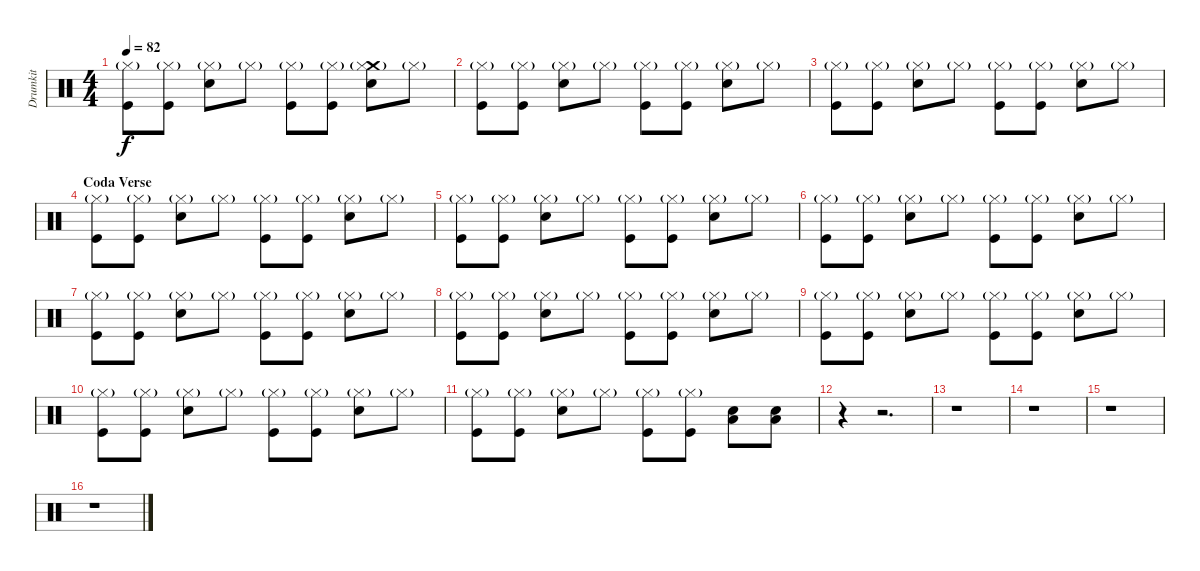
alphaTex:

\track ("Drumkit" "Drumkit") {instrument percussion}
\staff {score}
\articulation defaults
\ts (4 4)
\tempo 82
\clef neutral
\ks c
("Hi-Hat (closed)"{g} "Kick (hit)").8{dy f} ("Hi-Hat (closed)"{g} "Kick (hit)").8 ("Hi-Hat (closed)"{g} "Snare (hit) 2").8 "Hi-Hat (closed)"{g}.8 ("Hi-Hat (closed)"{g} "Kick (hit)").8 ("Hi-Hat (closed)"{g} "Kick (hit)").8 ("Crash medium (hit)" "Hi-Hat (closed)"{g} "Snare (hit) 2").8 "Hi-Hat (closed)"{g}.8 |
("Hi-Hat (closed)"{g} "Kick (hit)").8 ("Hi-Hat (closed)"{g} "Kick (hit)").8 ("Hi-Hat (closed)"{g} "Snare (hit) 2").8 "Hi-Hat (closed)"{g}.8 ("Hi-Hat (closed)"{g} "Kick (hit)").8 ("Hi-Hat (closed)"{g} "Kick (hit)").8 ("Hi-Hat (closed)"{g} "Snare (hit) 2").8 "Hi-Hat (closed)"{g}.8 |
("Hi-Hat (closed)"{g} "Kick (hit)").8 ("Hi-Hat (closed)"{g} "Kick (hit)").8 ("Hi-Hat (closed)"{g} "Snare (hit) 2").8 "Hi-Hat (closed)"{g}.8 ("Hi-Hat (closed)"{g} "Kick (hit)").8 ("Hi-Hat (closed)"{g} "Kick (hit)").8 ("Hi-Hat (closed)"{g} "Snare (hit) 2").8 "Hi-Hat (closed)"{g}.8 |
\section ("" "Coda Verse")
("Hi-Hat (closed)"{g} "Kick (hit)").8 ("Hi-Hat (closed)"{g} "Kick (hit)").8 ("Hi-Hat (closed)"{g} "Snare (hit) 2").8 "Hi-Hat (closed)"{g}.8 ("Hi-Hat (closed)"{g} "Kick (hit)").8 ("Hi-Hat (closed)"{g} "Kick (hit)").8 ("Hi-Hat (closed)"{g} "Snare (hit) 2").8 "Hi-Hat (closed)"{g}.8 |
("Hi-Hat (closed)"{g} "Kick (hit)").8 ("Hi-Hat (closed)"{g} "Kick (hit)").8 ("Hi-Hat (closed)"{g} "Snare (hit) 2").8 "Hi-Hat (closed)"{g}.8 ("Hi-Hat (closed)"{g} "Kick (hit)").8 ("Hi-Hat (closed)"{g} "Kick (hit)").8 ("Hi-Hat (closed)"{g} "Snare (hit) 2").8 "Hi-Hat (closed)"{g}.8 |
("Hi-Hat (closed)"{g} "Kick (hit)").8 ("Hi-Hat (closed)"{g} "Kick (hit)").8 ("Hi-Hat (closed)"{g} "Snare (hit) 2").8 "Hi-Hat (closed)"{g}.8 ("Hi-Hat (closed)"{g} "Kick (hit)").8 ("Hi-Hat (closed)"{g} "Kick (hit)").8 ("Hi-Hat (closed)"{g} "Snare (hit) 2").8 "Hi-Hat (closed)"{g}.8 |
("Hi-Hat (closed)"{g} "Kick (hit)").8 ("Hi-Hat (closed)"{g} "Kick (hit)").8 ("Hi-Hat (closed)"{g} "Snare (hit) 2").8 "Hi-Hat (closed)"{g}.8 ("Hi-Hat (closed)"{g} "Kick (hit)").8 ("Hi-Hat (closed)"{g} "Kick (hit)").8 ("Hi-Hat (closed)"{g} "Snare (hit) 2").8 "Hi-Hat (closed)"{g}.8 |
("Hi-Hat (closed)"{g} "Kick (hit)").8 ("Hi-Hat (closed)"{g} "Kick (hit)").8 ("Hi-Hat (closed)"{g} "Snare (hit) 2").8 "Hi-Hat (closed)"{g}.8 ("Hi-Hat (closed)"{g} "Kick (hit)").8 ("Hi-Hat (closed)"{g} "Kick (hit)").8 ("Hi-Hat (closed)"{g} "Snare (hit) 2").8 "Hi-Hat (closed)"{g}.8 |
("Hi-Hat (closed)"{g} "Kick (hit)").8 ("Hi-Hat (closed)"{g} "Kick (hit)").8 ("Hi-Hat (closed)"{g} "Snare (hit) 2").8 "Hi-Hat (closed)"{g}.8 ("Hi-Hat (closed)"{g} "Kick (hit)").8 ("Hi-Hat (closed)"{g} "Kick (hit)").8 ("Hi-Hat (closed)"{g} "Snare (hit) 2").8 "Hi-Hat (closed)"{g}.8 |
("Hi-Hat (closed)"{g} "Kick (hit)").8 ("Hi-Hat (closed)"{g} "Kick (hit)").8 ("Hi-Hat (closed)"{g} "Snare (hit) 2").8 "Hi-Hat (closed)"{g}.8 ("Hi-Hat (closed)"{g} "Kick (hit)").8 ("Hi-Hat (closed)"{g} "Kick (hit)").8 ("Hi-Hat (closed)"{g} "Snare (hit) 2").8 "Hi-Hat (closed)"{g}.8 |
("Hi-Hat (closed)"{g} "Kick (hit)").8 ("Hi-Hat (closed)"{g} "Kick (hit)").8 ("Hi-Hat (closed)"{g} "Snare (hit) 2").8 "Hi-Hat (closed)"{g}.8 ("Hi-Hat (closed)"{g} "Kick (hit)").8 ("Hi-Hat (closed)"{g} "Kick (hit)").8 ("Low Floor Tom (hit)" "Snare (hit) 2").8 ("Low Floor Tom (hit)" "Snare (hit) 2").8 |
r.4 r.2{d} |
r.1 |
r.1 |
r.1 |
r.1
